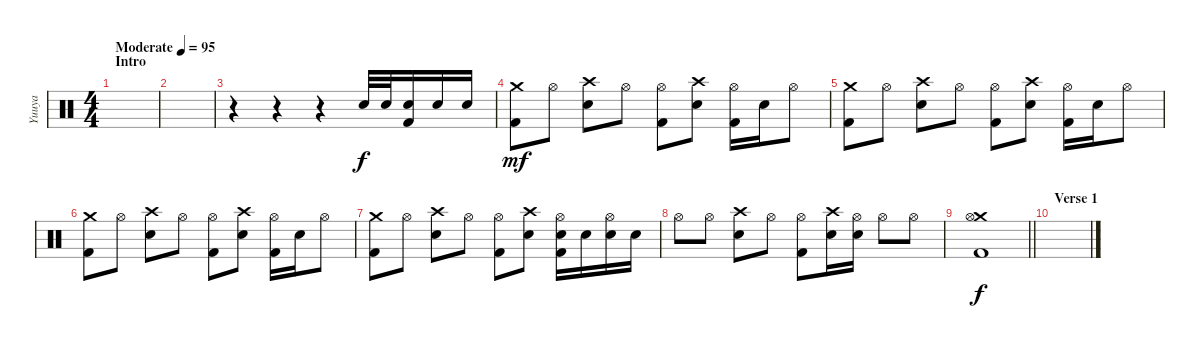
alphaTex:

\track ("Yuuya" "Yuuya") {instrument percussion}
\staff {score}
\articulation defaults
\ts (4 4)
\section ("" "Intro")
\tempo (95 "Moderate")
\clef neutral
\ks c
|
|
r.4 r.4 r.4 "Snare (hit) 2".32 "Snare (hit) 2".32 ("Snare (hit) 2" "Kick (hit) 2").16 "Snare (hit) 2".16 "Snare (hit) 2".16 |
("Crash medium (hit)" "Kick (hit) 2").8{dy mf} "Hi-Hat (open)".8 ("Crash high (hit)" "Snare (hit) 2").8 "Hi-Hat (open)".8 ("Hi-Hat (open)" "Kick (hit) 2").8 ("Crash high (hit)" "Snare (hit) 2").8 ("Hi-Hat (open)" "Kick (hit) 2").16 "Snare (hit) 2".16 "Hi-Hat (open)".8 |
("Crash medium (hit)" "Kick (hit) 2").8 "Hi-Hat (open)".8 ("Crash high (hit)" "Snare (hit) 2").8 "Hi-Hat (open)".8 ("Hi-Hat (open)" "Kick (hit) 2").8 ("Crash high (hit)" "Snare (hit) 2").8 ("Hi-Hat (open)" "Kick (hit) 2").16 "Snare (hit) 2".16 "Hi-Hat (open)".8 |
("Crash medium (hit)" "Kick (hit) 2").8 "Hi-Hat (open)".8 ("Crash high (hit)" "Snare (hit) 2").8 "Hi-Hat (open)".8 ("Hi-Hat (open)" "Kick (hit) 2").8 ("Crash high (hit)" "Snare (hit) 2").8 ("Hi-Hat (open)" "Kick (hit) 2").16 "Snare (hit) 2".16 "Hi-Hat (open)".8 |
("Crash medium (hit)" "Kick (hit) 2").8 "Hi-Hat (open)".8 ("Crash high (hit)" "Snare (hit) 2").8 "Hi-Hat (open)".8 ("Hi-Hat (open)" "Kick (hit) 2").8 ("Crash high (hit)" "Snare (hit) 2").8 ("Hi-Hat (open)" "Snare (hit) 2" "Kick (hit) 2").16 "Snare (hit) 2".16 ("Hi-Hat (open)" "Snare (hit) 2").16 "Snare (hit) 2".16 |
"Hi-Hat (open)".8 "Hi-Hat (open)".8 ("Crash high (hit)" "Snare (hit) 2").8 "Hi-Hat (open)".8 ("Hi-Hat (open)" "Kick (hit) 2").8 ("Crash high (hit)" "Snare (hit) 2").16 ("Hi-Hat (open)" "Snare (hit) 2").16 "Hi-Hat (open)".8 "Hi-Hat (open)".8 |
\barLineRight lightlight
("Crash medium (hit)" "Hi-Hat (open)" "Kick (hit) 2").1{dy f} |
\section ("" "Verse 1")
